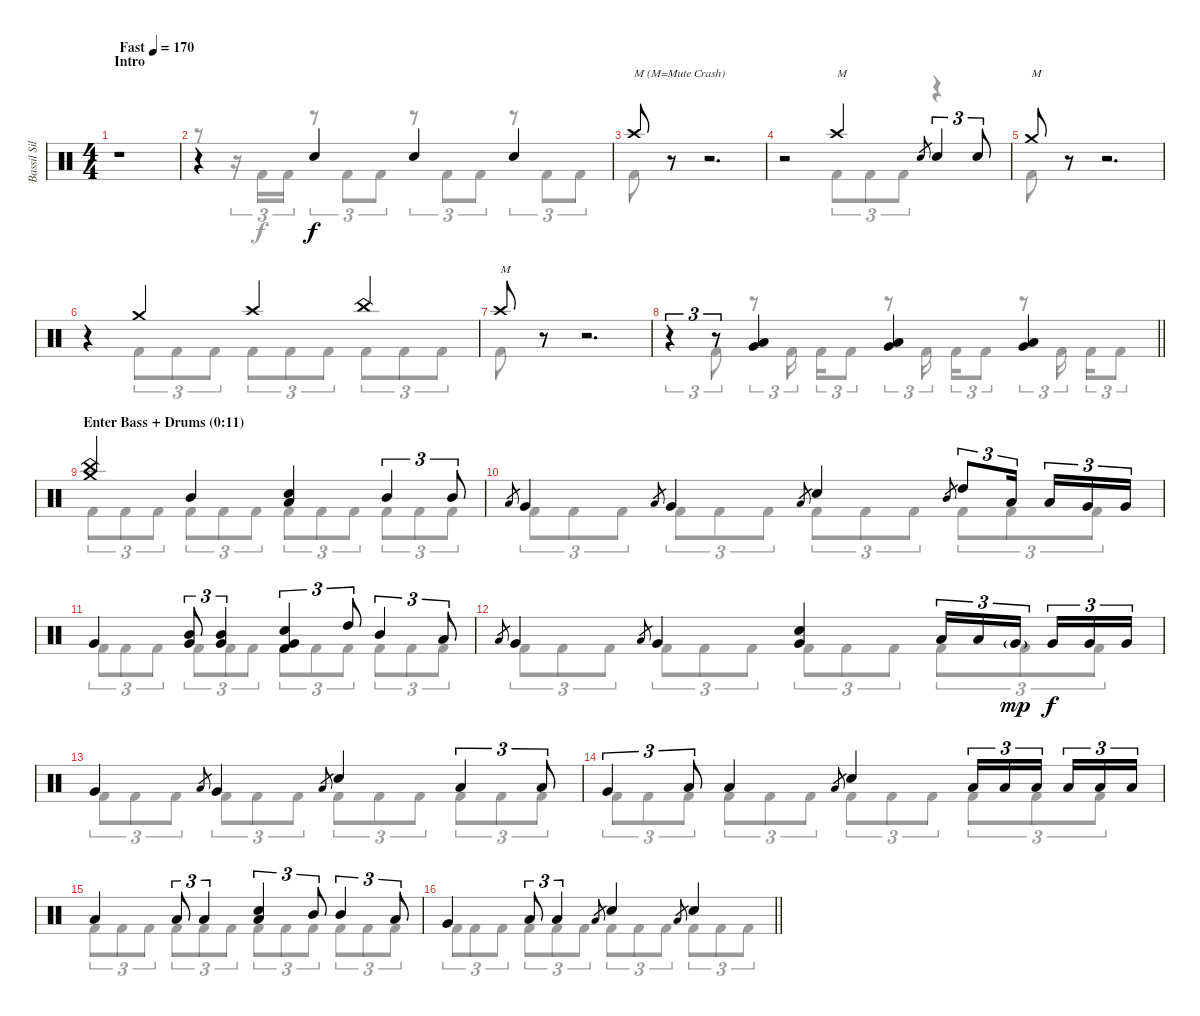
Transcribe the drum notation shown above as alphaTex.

\track ("Bassil Silver-Hajo" "Bassil Sil") {instrument percussion}
\staff {score}
\articulation defaults
\voice
\ts (4 4)
\section ("" "Intro")
\tempo (170 "Fast")
\clef neutral
\ks c
r.1{dy f} |
r.4 "Snare (hit) 2".4 "Snare (hit) 2".4 "Snare (hit) 2".4 |
"Crash high (hit)".8{txt "M (M=Mute Crash)"} r.8{volume 0} r.2{d} |
r.2 "Crash high (hit)".4{txt "M" volume 13} "Snare (hit) 2".8{gr} "Snare (hit) 2".4{tu (3 2)} "Snare (hit) 2".8{tu (3 2)} |
"Crash medium (hit)".8{txt "M"} r.8{volume 0} r.2{d} |
r.4 "Crash medium (hit)".4{volume 13} "Crash high (hit)".4 "China (hit)".4 |
"Crash high (hit)".8{txt "M"} r.8{volume 0} r.2{d} |
\barLineRight lightlight
r.4{tu (3 2)} r.8{tu (3 2) volume 13} ("Very Low Tom (hit)" "Low Floor Tom (hit)").4 ("Very Low Tom (hit)" "Low Floor Tom (hit)").4 ("Very Low Tom (hit)" "Low Floor Tom (hit)").4 |
\section ("" "Enter Bass + Drums (0:11)")
("Crash medium (hit)" "China (hit)").4 "Mid Tom (hit)".4 ("Low Tom (hit)" "Snare (hit) 2").4 "Mid Tom (hit)".4{tu (3 2)} "Mid Tom (hit)".8{tu (3 2)} |
"Low Floor Tom (hit)".8{gr} "Very Low Tom (hit)".4 "Low Floor Tom (hit)".8{gr} "Very Low Tom (hit)".4 "Low Floor Tom (hit)".8{gr} "Snare (hit) 2".4 "Mid Tom (hit)".8{gr} "High Tom (hit)".8{tu (3 2)} "Low Tom (hit)".16{tu (3 2) beam splitsecondary} "Low Tom (hit)".16{tu (3 2)} "Very Low Tom (hit)".16{tu (3 2)} "Very Low Tom (hit)".16{tu (3 2)} |
"Very Low Tom (hit)".4 ("Mid Tom (hit)" "Very Low Tom (hit)").8{tu (3 2)} ("Mid Tom (hit)" "Very Low Tom (hit)").4{tu (3 2)} ("Very Low Tom (hit)" "Snare (hit) 2" "Kick (hit) 2").4{tu (3 2)} "High Tom (hit)".8{tu (3 2)} "Mid Tom (hit)".4{tu (3 2)} "Low Tom (hit)".8{tu (3 2)} |
"Low Floor Tom (hit)".8{gr} "Very Low Tom (hit)".4 "Low Floor Tom (hit)".8{gr} "Very Low Tom (hit)".4 ("Very Low Tom (hit)" "Snare (hit) 2").4 "Low Tom (hit)".16{tu (3 2)} "Low Tom (hit)".16{tu (3 2)} "Very Low Tom (hit)"{g}.16{tu (3 2) dy mp beam splitsecondary} "Very Low Tom (hit)".16{tu (3 2) dy f} "Very Low Tom (hit)".16{tu (3 2)} "Very Low Tom (hit)".16{tu (3 2)} |
"Very Low Tom (hit)".4 "Low Floor Tom (hit)".8{gr} "Very Low Tom (hit)".4 "Low Floor Tom (hit)".8{gr} "Snare (hit) 2".4 "Low Tom (hit)".4{tu (3 2)} "Low Tom (hit)".8{tu (3 2)} |
"Very Low Tom (hit)".4{tu (3 2)} "Low Floor Tom (hit)".8{tu (3 2)} "Low Floor Tom (hit)".4 "Low Floor Tom (hit)".8{gr} "Snare (hit) 2".4 "Low Floor Tom (hit)".16{tu (3 2)} "Low Floor Tom (hit)".16{tu (3 2)} "Low Floor Tom (hit)".16{tu (3 2) beam splitsecondary} "Low Floor Tom (hit)".16{tu (3 2)} "Low Floor Tom (hit)".16{tu (3 2)} "Low Floor Tom (hit)".16{tu (3 2)} |
"Low Floor Tom (hit)".4 "Low Floor Tom (hit)".8{tu (3 2)} "Low Floor Tom (hit)".4{tu (3 2)} ("Low Floor Tom (hit)" "Snare (hit) 2").4{tu (3 2)} "Mid Tom (hit)".8{tu (3 2)} "Mid Tom (hit)".4{tu (3 2)} "Low Tom (hit)".8{tu (3 2)} |
\barLineRight lightlight "Very Low Tom (hit)".4 "Low Floor Tom (hit)".8{tu (3 2)} "Low Floor Tom (hit)".4{tu (3 2)} "Low Floor Tom (hit)".8{gr} "Snare (hit) 2".4 "Low Floor Tom (hit)".8{gr} "Snare (hit) 2".4
\voice
\clef neutral
\ottava regular
\simile none
\ks c
|
r.8 r.16{tu (3 2)} "Kick (hit) 2".16{tu (3 2)} "Kick (hit) 2".16{tu (3 2)} r.8{tu (3 2)} "Kick (hit) 2".8{tu (3 2)} "Kick (hit) 2".8{tu (3 2)} r.8{tu (3 2)} "Kick (hit) 2".8{tu (3 2)} "Kick (hit) 2".8{tu (3 2)} r.8{tu (3 2)} "Kick (hit) 2".8{tu (3 2)} "Kick (hit) 2".8{tu (3 2)} |
"Kick (hit) 2".8 r.8 r.2{d} |
r.2 "Kick (hit) 2".8{tu (3 2)} "Kick (hit) 2".8{tu (3 2)} "Kick (hit) 2".8{tu (3 2)} r.4 |
"Kick (hit) 2".8 r.8 r.2{d} |
r.4 "Kick (hit) 2".8{tu (3 2)} "Kick (hit) 2".8{tu (3 2)} "Kick (hit) 2".8{tu (3 2)} "Kick (hit) 2".8{tu (3 2)} "Kick (hit) 2".8{tu (3 2)} "Kick (hit) 2".8{tu (3 2)} "Kick (hit) 2".8{tu (3 2)} "Kick (hit) 2".8{tu (3 2)} "Kick (hit) 2".8{tu (3 2)} |
"Kick (hit) 2".8 r.8 r.2{d} |
\barLineRight lightlight
r.4{tu (3 2)} "Kick (hit) 2".8{tu (3 2)} r.8{tu (3 2)} "Kick (hit) 2".16{tu (3 2) beam splitsecondary} "Kick (hit) 2".16{tu (3 2)} "Kick (hit) 2".8{tu (3 2)} r.8{tu (3 2)} "Kick (hit) 2".16{tu (3 2) beam splitsecondary} "Kick (hit) 2".16{tu (3 2)} "Kick (hit) 2".8{tu (3 2)} r.8{tu (3 2)} "Kick (hit) 2".16{tu (3 2) beam splitsecondary} "Kick (hit) 2".16{tu (3 2)} "Kick (hit) 2".8{tu (3 2)} |
"Kick (hit) 2".8{tu (3 2)} "Kick (hit) 2".8{tu (3 2)} "Kick (hit) 2".8{tu (3 2)} "Kick (hit) 2".8{tu (3 2)} "Kick (hit) 2".8{tu (3 2)} "Kick (hit) 2".8{tu (3 2)} "Kick (hit) 2".8{tu (3 2)} "Kick (hit) 2".8{tu (3 2)} "Kick (hit) 2".8{tu (3 2)} "Kick (hit) 2".8{tu (3 2)} "Kick (hit) 2".8{tu (3 2)} "Kick (hit) 2".8{tu (3 2)} |
"Kick (hit) 2".8{tu (3 2)} "Kick (hit) 2".8{tu (3 2)} "Kick (hit) 2".8{tu (3 2)} "Kick (hit) 2".8{tu (3 2)} "Kick (hit) 2".8{tu (3 2)} "Kick (hit) 2".8{tu (3 2)} "Kick (hit) 2".8{tu (3 2)} "Kick (hit) 2".8{tu (3 2)} "Kick (hit) 2".8{tu (3 2)} "Kick (hit) 2".8{tu (3 2)} "Kick (hit) 2".8{tu (3 2)} "Kick (hit) 2".8{tu (3 2)} |
"Kick (hit) 2".8{tu (3 2)} "Kick (hit) 2".8{tu (3 2)} "Kick (hit) 2".8{tu (3 2)} "Kick (hit) 2".8{tu (3 2)} "Kick (hit) 2".8{tu (3 2)} "Kick (hit) 2".8{tu (3 2)} "Kick (hit) 2".8{tu (3 2)} "Kick (hit) 2".8{tu (3 2)} "Kick (hit) 2".8{tu (3 2)} "Kick (hit) 2".8{tu (3 2)} "Kick (hit) 2".8{tu (3 2)} "Kick (hit) 2".8{tu (3 2)} |
"Kick (hit) 2".8{tu (3 2)} "Kick (hit) 2".8{tu (3 2)} "Kick (hit) 2".8{tu (3 2)} "Kick (hit) 2".8{tu (3 2)} "Kick (hit) 2".8{tu (3 2)} "Kick (hit) 2".8{tu (3 2)} "Kick (hit) 2".8{tu (3 2)} "Kick (hit) 2".8{tu (3 2)} "Kick (hit) 2".8{tu (3 2)} "Kick (hit) 2".8{tu (3 2)} "Kick (hit) 2".8{tu (3 2)} "Kick (hit) 2".8{tu (3 2)} |
"Kick (hit) 2".8{tu (3 2)} "Kick (hit) 2".8{tu (3 2)} "Kick (hit) 2".8{tu (3 2)} "Kick (hit) 2".8{tu (3 2)} "Kick (hit) 2".8{tu (3 2)} "Kick (hit) 2".8{tu (3 2)} "Kick (hit) 2".8{tu (3 2)} "Kick (hit) 2".8{tu (3 2)} "Kick (hit) 2".8{tu (3 2)} "Kick (hit) 2".8{tu (3 2)} "Kick (hit) 2".8{tu (3 2)} "Kick (hit) 2".8{tu (3 2)} |
"Kick (hit) 2".8{tu (3 2)} "Kick (hit) 2".8{tu (3 2)} "Kick (hit) 2".8{tu (3 2)} "Kick (hit) 2".8{tu (3 2)} "Kick (hit) 2".8{tu (3 2)} "Kick (hit) 2".8{tu (3 2)} "Kick (hit) 2".8{tu (3 2)} "Kick (hit) 2".8{tu (3 2)} "Kick (hit) 2".8{tu (3 2)} "Kick (hit) 2".8{tu (3 2)} "Kick (hit) 2".8{tu (3 2)} "Kick (hit) 2".8{tu (3 2)} |
"Kick (hit) 2".8{tu (3 2)} "Kick (hit) 2".8{tu (3 2)} "Kick (hit) 2".8{tu (3 2)} "Kick (hit) 2".8{tu (3 2)} "Kick (hit) 2".8{tu (3 2)} "Kick (hit) 2".8{tu (3 2)} "Kick (hit) 2".8{tu (3 2)} "Kick (hit) 2".8{tu (3 2)} "Kick (hit) 2".8{tu (3 2)} "Kick (hit) 2".8{tu (3 2)} "Kick (hit) 2".8{tu (3 2)} "Kick (hit) 2".8{tu (3 2)} |
\barLineRight lightlight "Kick (hit) 2".8{tu (3 2)} "Kick (hit) 2".8{tu (3 2)} "Kick (hit) 2".8{tu (3 2)} "Kick (hit) 2".8{tu (3 2)} "Kick (hit) 2".8{tu (3 2)} "Kick (hit) 2".8{tu (3 2)} "Kick (hit) 2".8{tu (3 2)} "Kick (hit) 2".8{tu (3 2)} "Kick (hit) 2".8{tu (3 2)} "Kick (hit) 2".8{tu (3 2)} "Kick (hit) 2".8{tu (3 2)} "Kick (hit) 2".8{tu (3 2)}
